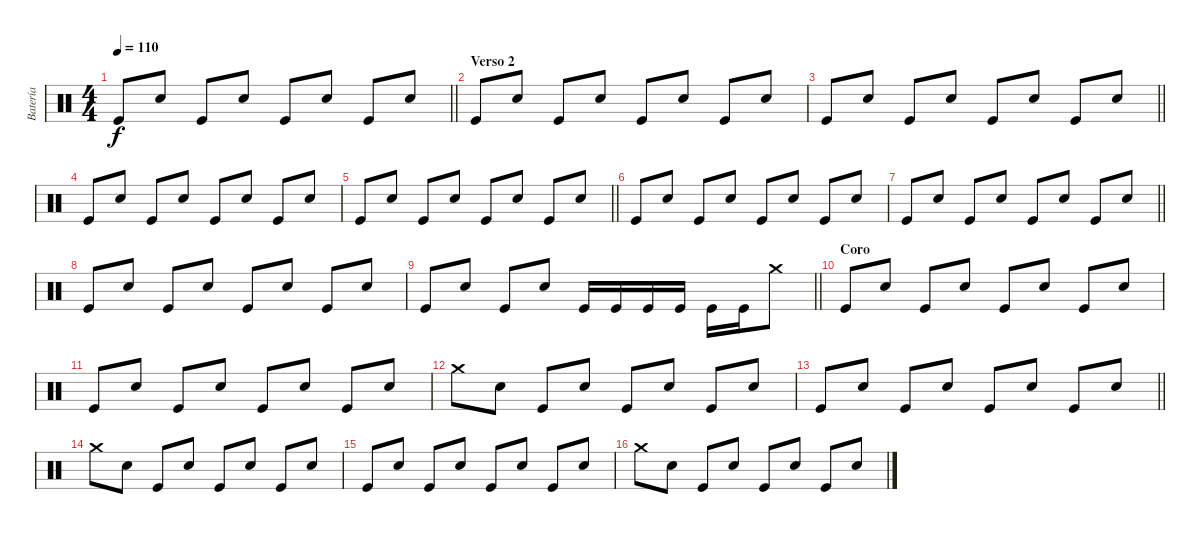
\track ("Batería" "Batería") {instrument percussion}
\staff {score}
\articulation defaults
\ts (4 4)
\tempo 110
\clef neutral
\barLineRight lightlight
\ks c "Kick (hit)".8{dy f} "Electric Snare (hit)".8 "Kick (hit)".8 "Electric Snare (hit)".8 "Kick (hit)".8 "Electric Snare (hit)".8 "Kick (hit)".8 "Electric Snare (hit)".8
|
\section ("" "Verso 2")
"Kick (hit)".8 "Electric Snare (hit)".8 "Kick (hit)".8 "Electric Snare (hit)".8 "Kick (hit)".8 "Electric Snare (hit)".8 "Kick (hit)".8 "Electric Snare (hit)".8 |
\barLineRight lightlight "Kick (hit)".8 "Electric Snare (hit)".8 "Kick (hit)".8 "Electric Snare (hit)".8 "Kick (hit)".8 "Electric Snare (hit)".8 "Kick (hit)".8 "Electric Snare (hit)".8
|
"Kick (hit)".8 "Electric Snare (hit)".8 "Kick (hit)".8 "Electric Snare (hit)".8 "Kick (hit)".8 "Electric Snare (hit)".8 "Kick (hit)".8 "Electric Snare (hit)".8 |
\barLineRight lightlight "Kick (hit)".8 "Electric Snare (hit)".8 "Kick (hit)".8 "Electric Snare (hit)".8 "Kick (hit)".8 "Electric Snare (hit)".8 "Kick (hit)".8 "Electric Snare (hit)".8
|
"Kick (hit)".8 "Electric Snare (hit)".8 "Kick (hit)".8 "Electric Snare (hit)".8 "Kick (hit)".8 "Electric Snare (hit)".8 "Kick (hit)".8 "Electric Snare (hit)".8 |
\barLineRight lightlight "Kick (hit)".8 "Electric Snare (hit)".8 "Kick (hit)".8 "Electric Snare (hit)".8 "Kick (hit)".8 "Electric Snare (hit)".8 "Kick (hit)".8 "Electric Snare (hit)".8
|
"Kick (hit)".8 "Electric Snare (hit)".8 "Kick (hit)".8 "Electric Snare (hit)".8 "Kick (hit)".8 "Electric Snare (hit)".8 "Kick (hit)".8 "Electric Snare (hit)".8 |
\barLineRight lightlight "Kick (hit)".8 "Electric Snare (hit)".8 "Kick (hit)".8 "Electric Snare (hit)".8 "Kick (hit)".16 "Kick (hit)".16 "Kick (hit)".16 "Kick (hit)".16 "Kick (hit)".16 "Kick (hit)".16 "Crash medium (hit)".8
|
\section ("" "Coro")
"Kick (hit)".8 "Electric Snare (hit)".8 "Kick (hit)".8 "Electric Snare (hit)".8 "Kick (hit)".8 "Electric Snare (hit)".8 "Kick (hit)".8 "Electric Snare (hit)".8 |
"Kick (hit)".8 "Electric Snare (hit)".8 "Kick (hit)".8 "Electric Snare (hit)".8 "Kick (hit)".8 "Electric Snare (hit)".8 "Kick (hit)".8 "Electric Snare (hit)".8 |
"Crash medium (hit)".8 "Electric Snare (hit)".8 "Kick (hit)".8 "Electric Snare (hit)".8 "Kick (hit)".8 "Electric Snare (hit)".8 "Kick (hit)".8 "Electric Snare (hit)".8 |
\barLineRight lightlight "Kick (hit)".8 "Electric Snare (hit)".8 "Kick (hit)".8 "Electric Snare (hit)".8 "Kick (hit)".8 "Electric Snare (hit)".8 "Kick (hit)".8 "Electric Snare (hit)".8
|
\section ("" "")
"Crash medium (hit)".8 "Electric Snare (hit)".8 "Kick (hit)".8 "Electric Snare (hit)".8 "Kick (hit)".8 "Electric Snare (hit)".8 "Kick (hit)".8 "Electric Snare (hit)".8 |
"Kick (hit)".8 "Electric Snare (hit)".8 "Kick (hit)".8 "Electric Snare (hit)".8 "Kick (hit)".8 "Electric Snare (hit)".8 "Kick (hit)".8 "Electric Snare (hit)".8 |
"Crash medium (hit)".8 "Electric Snare (hit)".8 "Kick (hit)".8 "Electric Snare (hit)".8 "Kick (hit)".8 "Electric Snare (hit)".8 "Kick (hit)".8 "Electric Snare (hit)".8
